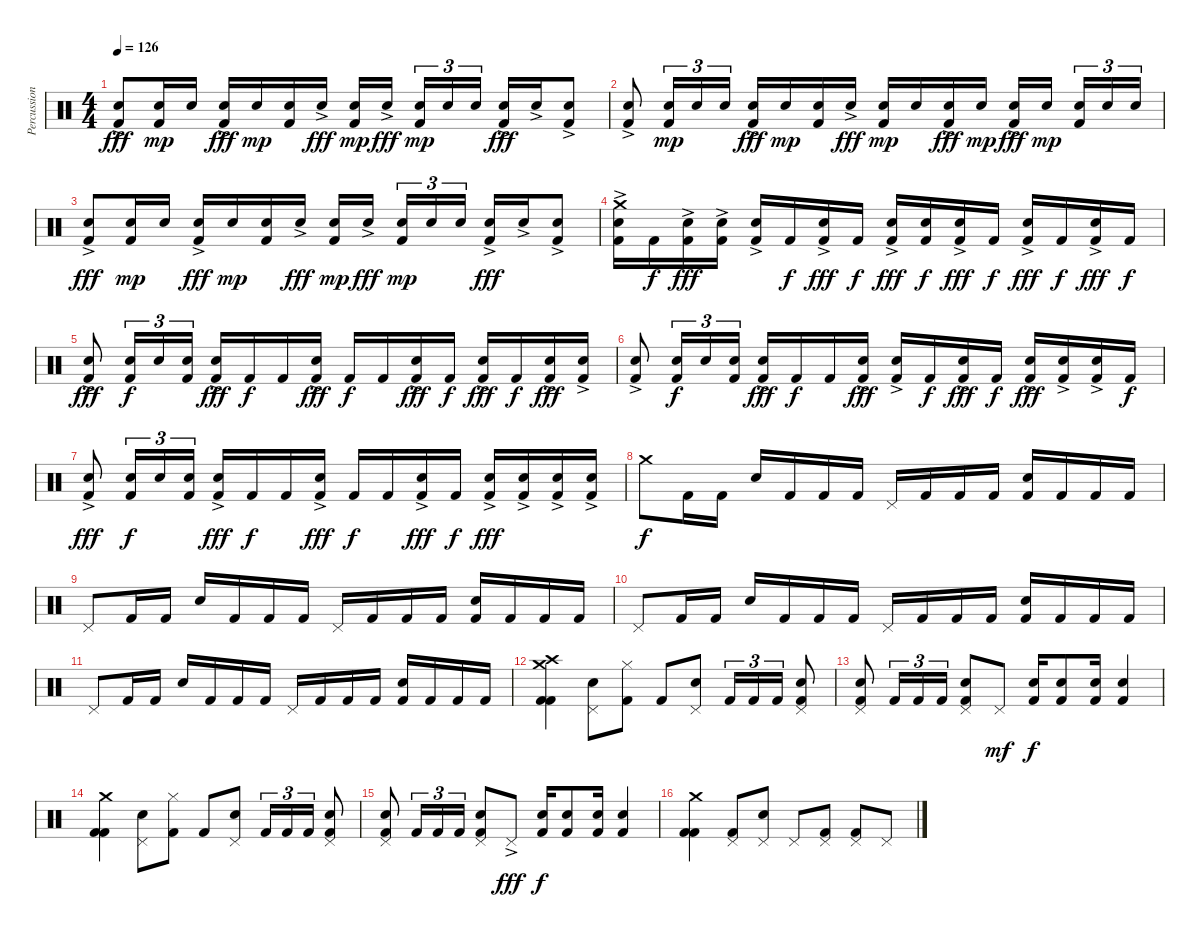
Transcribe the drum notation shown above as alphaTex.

\track ("Percussion" "Percussion") {instrument percussion}
\staff {score}
\articulation defaults
\ts (4 4)
\tempo 126
\clef neutral
\ks c
("Electric Snare (hit)"{ac} "Kick (hit) 2").8{dy fff} ("Electric Snare (hit)" "Kick (hit) 2").16{dy mp} "Electric Snare (hit)".16 ("Electric Snare (hit)"{ac} "Kick (hit) 2").16{dy fff} "Electric Snare (hit)".16{dy mp} ("Electric Snare (hit)" "Kick (hit) 2").16 "Electric Snare (hit)"{ac}.16{dy fff} ("Electric Snare (hit)" "Kick (hit) 2").16{dy mp} "Electric Snare (hit)"{ac}.16{dy fff beam splitsecondary} ("Electric Snare (hit)" "Kick (hit) 2").16{tu (3 2) dy mp} "Electric Snare (hit)".16{tu (3 2)} "Electric Snare (hit)".16{tu (3 2)} ("Electric Snare (hit)"{ac} "Kick (hit) 2").16{dy fff} "Electric Snare (hit)"{ac}.16 ("Electric Snare (hit)"{ac} "Kick (hit) 2").8 |
("Electric Snare (hit)"{ac} "Kick (hit) 2").8 ("Electric Snare (hit)" "Kick (hit) 2").16{tu (3 2) dy mp} "Electric Snare (hit)".16{tu (3 2)} "Electric Snare (hit)".16{tu (3 2)} ("Electric Snare (hit)"{ac} "Kick (hit) 2").16{dy fff} "Electric Snare (hit)".16{dy mp} ("Electric Snare (hit)" "Kick (hit) 2").16 "Electric Snare (hit)"{ac}.16{dy fff} ("Electric Snare (hit)" "Kick (hit) 2").16{dy mp} "Electric Snare (hit)".16 ("Electric Snare (hit)"{ac} "Kick (hit) 2").16{dy fff} "Electric Snare (hit)".16{dy mp} ("Electric Snare (hit)"{ac} "Kick (hit) 2").16{dy fff} "Electric Snare (hit)".16{dy mp beam splitsecondary} ("Electric Snare (hit)" "Kick (hit) 2").16{tu (3 2)} "Electric Snare (hit)".16{tu (3 2)} "Electric Snare (hit)".16{tu (3 2)} |
("Electric Snare (hit)"{ac} "Kick (hit) 2").8{dy fff} ("Electric Snare (hit)" "Kick (hit) 2").16{dy mp} "Electric Snare (hit)".16 ("Electric Snare (hit)"{ac} "Kick (hit) 2").16{dy fff} "Electric Snare (hit)".16{dy mp} ("Electric Snare (hit)" "Kick (hit) 2").16 "Electric Snare (hit)"{ac}.16{dy fff} ("Electric Snare (hit)" "Kick (hit) 2").16{dy mp} "Electric Snare (hit)"{ac}.16{dy fff beam splitsecondary} ("Electric Snare (hit)" "Kick (hit) 2").16{tu (3 2) dy mp} "Electric Snare (hit)".16{tu (3 2)} "Electric Snare (hit)".16{tu (3 2)} ("Electric Snare (hit)"{ac} "Kick (hit) 2").16{dy fff} "Electric Snare (hit)"{ac}.16 ("Electric Snare (hit)"{ac} "Kick (hit) 2").8 |
("Crash medium (hit)" "Electric Snare (hit)"{ac} "Kick (hit) 2").16 "Kick (hit) 2".16{dy f} ("Electric Snare (hit)"{ac} "Kick (hit) 2").16{dy fff} ("Electric Snare (hit)"{ac} "Kick (hit) 2").16 ("Electric Snare (hit)"{ac} "Kick (hit) 2").16 "Kick (hit) 2".16{dy f} ("Electric Snare (hit)"{ac} "Kick (hit) 2").16{dy fff} "Kick (hit) 2".16{dy f} ("Electric Snare (hit)"{ac} "Kick (hit) 2").16{dy fff} ("Electric Snare (hit)" "Kick (hit) 2").16{dy f} ("Electric Snare (hit)"{ac} "Kick (hit) 2").16{dy fff} "Kick (hit) 2".16{dy f} ("Electric Snare (hit)"{ac} "Kick (hit) 2").16{dy fff} "Kick (hit) 2".16{dy f} ("Electric Snare (hit)"{ac} "Kick (hit) 2").16{dy fff} "Kick (hit) 2".16{dy f} |
("Electric Snare (hit)"{ac} "Kick (hit) 2").8{dy fff} ("Electric Snare (hit)" "Kick (hit) 2").16{tu (3 2) dy f} "Electric Snare (hit)".16{tu (3 2)} ("Electric Snare (hit)" "Kick (hit) 2").16{tu (3 2)} ("Electric Snare (hit)"{ac} "Kick (hit) 2").16{dy fff} "Kick (hit) 2".16{dy f} "Kick (hit) 2".16 ("Electric Snare (hit)"{ac} "Kick (hit) 2").16{dy fff} "Kick (hit) 2".16{dy f} "Kick (hit) 2".16 ("Electric Snare (hit)"{ac} "Kick (hit) 2").16{dy fff} "Kick (hit) 2".16{dy f} ("Electric Snare (hit)"{ac} "Kick (hit) 2").16{dy fff} "Kick (hit) 2".16{dy f} ("Electric Snare (hit)"{ac} "Kick (hit) 2").16{dy fff} ("Electric Snare (hit)"{ac} "Kick (hit) 2").16 |
("Electric Snare (hit)"{ac} "Kick (hit) 2").8 ("Electric Snare (hit)" "Kick (hit) 2").16{tu (3 2) dy f} "Electric Snare (hit)".16{tu (3 2)} ("Electric Snare (hit)" "Kick (hit) 2").16{tu (3 2)} ("Electric Snare (hit)"{ac} "Kick (hit) 2").16{dy fff} "Kick (hit) 2".16{dy f} "Kick (hit) 2".16 ("Electric Snare (hit)"{ac} "Kick (hit) 2").16{dy fff} ("Electric Snare (hit)"{ac} "Kick (hit) 2").16 "Kick (hit) 2".16{dy f} ("Electric Snare (hit)"{ac} "Kick (hit) 2"{ac}).16{dy fff} "Kick (hit) 2".16{dy f} ("Electric Snare (hit)"{ac} "Kick (hit) 2").16{dy fff} ("Electric Snare (hit)"{ac} "Kick (hit) 2").16 ("Electric Snare (hit)"{ac} "Kick (hit) 2").16 "Kick (hit) 2".16{dy f} |
("Electric Snare (hit)"{ac} "Kick (hit) 2").8{dy fff} ("Electric Snare (hit)" "Kick (hit) 2").16{tu (3 2) dy f} "Electric Snare (hit)".16{tu (3 2)} ("Electric Snare (hit)" "Kick (hit) 2").16{tu (3 2)} ("Electric Snare (hit)"{ac} "Kick (hit) 2").16{dy fff} "Kick (hit) 2".16{dy f} "Kick (hit) 2".16 ("Electric Snare (hit)"{ac} "Kick (hit) 2").16{dy fff} "Kick (hit) 2".16{dy f} "Kick (hit) 2".16 ("Electric Snare (hit)"{ac} "Kick (hit) 2").16{dy fff} "Kick (hit) 2".16{dy f} ("Electric Snare (hit)"{ac} "Kick (hit) 2").16{dy fff} ("Electric Snare (hit)"{ac} "Kick (hit) 2").16 ("Electric Snare (hit)"{ac} "Kick (hit) 2").16 ("Electric Snare (hit)"{ac} "Kick (hit) 2").16 |
"Crash medium (hit)".8{dy f} "Kick (hit) 2".16 "Kick (hit) 2".16 "Electric Snare (hit)".16 "Kick (hit) 2".16 "Kick (hit) 2".16 "Kick (hit) 2".16 "Pedal Hi-Hat (hit)".16 "Kick (hit) 2".16 "Kick (hit) 2".16 "Kick (hit) 2".16 ("Electric Snare (hit)" "Kick (hit) 2").16 "Kick (hit) 2".16 "Kick (hit) 2".16 "Kick (hit) 2".16 |
"Pedal Hi-Hat (hit)".8 "Kick (hit) 2".16 "Kick (hit) 2".16 "Electric Snare (hit)".16 "Kick (hit) 2".16 "Kick (hit) 2".16 "Kick (hit) 2".16 "Pedal Hi-Hat (hit)".16 "Kick (hit) 2".16 "Kick (hit) 2".16 "Kick (hit) 2".16 ("Electric Snare (hit)" "Kick (hit) 2").16 "Kick (hit) 2".16 "Kick (hit) 2".16 "Kick (hit) 2".16 |
"Pedal Hi-Hat (hit)".8 "Kick (hit) 2".16 "Kick (hit) 2".16 "Electric Snare (hit)".16 "Kick (hit) 2".16 "Kick (hit) 2".16 "Kick (hit) 2".16 "Pedal Hi-Hat (hit)".16 "Kick (hit) 2".16 "Kick (hit) 2".16 "Kick (hit) 2".16 ("Electric Snare (hit)" "Kick (hit) 2").16 "Kick (hit) 2".16 "Kick (hit) 2".16 "Kick (hit) 2".16 |
"Pedal Hi-Hat (hit)".8 "Kick (hit) 2".16 "Kick (hit) 2".16 "Electric Snare (hit)".16 "Kick (hit) 2".16 "Kick (hit) 2".16 "Kick (hit) 2".16 "Pedal Hi-Hat (hit)".16 "Kick (hit) 2".16 "Kick (hit) 2".16 "Kick (hit) 2".16 ("Electric Snare (hit)" "Kick (hit) 2").16 "Kick (hit) 2".16 "Kick (hit) 2".16 "Kick (hit) 2".16 |
("Crash high (hit)" "Crash medium (hit)" "Kick (hit) 2" "Kick (hit) 2").4 ("Pedal Hi-Hat (hit)" "Electric Snare (hit)").8 ("Hi-Hat (closed)" "Kick (hit) 2").8 "Kick (hit) 2".8 ("Pedal Hi-Hat (hit)" "Electric Snare (hit)").8 "Kick (hit) 2".16{tu (3 2)} "Kick (hit) 2".16{tu (3 2)} "Kick (hit) 2".16{tu (3 2)} ("Pedal Hi-Hat (hit)" "Electric Snare (hit)" "Kick (hit) 2").8 |
("Pedal Hi-Hat (hit)" "Electric Snare (hit)" "Kick (hit) 2").8 "Kick (hit) 2".16{tu (3 2)} "Kick (hit) 2".16{tu (3 2)} "Kick (hit) 2".16{tu (3 2)} ("Pedal Hi-Hat (hit)" "Electric Snare (hit)" "Kick (hit) 2").8 "Pedal Hi-Hat (hit)".8{dy mf} ("Electric Snare (hit)" "Kick (hit) 2").16{dy f} ("Electric Snare (hit)" "Kick (hit) 2").8 ("Electric Snare (hit)" "Kick (hit) 2").16 ("Electric Snare (hit)" "Kick (hit) 2").4 |
("Crash medium (hit)" "Kick (hit) 2" "Kick (hit) 2").4 ("Pedal Hi-Hat (hit)" "Electric Snare (hit)").8 ("Hi-Hat (closed)" "Kick (hit) 2").8 "Kick (hit) 2".8 ("Pedal Hi-Hat (hit)" "Electric Snare (hit)").8 "Kick (hit) 2".16{tu (3 2)} "Kick (hit) 2".16{tu (3 2)} "Kick (hit) 2".16{tu (3 2)} ("Pedal Hi-Hat (hit)" "Electric Snare (hit)" "Kick (hit) 2").8 |
("Pedal Hi-Hat (hit)" "Electric Snare (hit)" "Kick (hit) 2").8 "Kick (hit) 2".16{tu (3 2)} "Kick (hit) 2".16{tu (3 2)} "Kick (hit) 2".16{tu (3 2)} ("Pedal Hi-Hat (hit)" "Electric Snare (hit)" "Kick (hit) 2").8 "Pedal Hi-Hat (hit)"{ac}.8{dy fff} ("Electric Snare (hit)" "Kick (hit) 2").16{dy f} ("Electric Snare (hit)" "Kick (hit) 2").8 ("Electric Snare (hit)" "Kick (hit) 2").16 ("Electric Snare (hit)" "Kick (hit) 2").4 |
("Crash medium (hit)" "Kick (hit) 2" "Kick (hit) 2").4 ("Pedal Hi-Hat (hit)" "Kick (hit) 2").8 ("Pedal Hi-Hat (hit)" "Electric Snare (hit)").8 "Pedal Hi-Hat (hit)".8 ("Pedal Hi-Hat (hit)" "Kick (hit) 2").8 ("Pedal Hi-Hat (hit)" "Kick (hit) 2").8 "Pedal Hi-Hat (hit)".8
